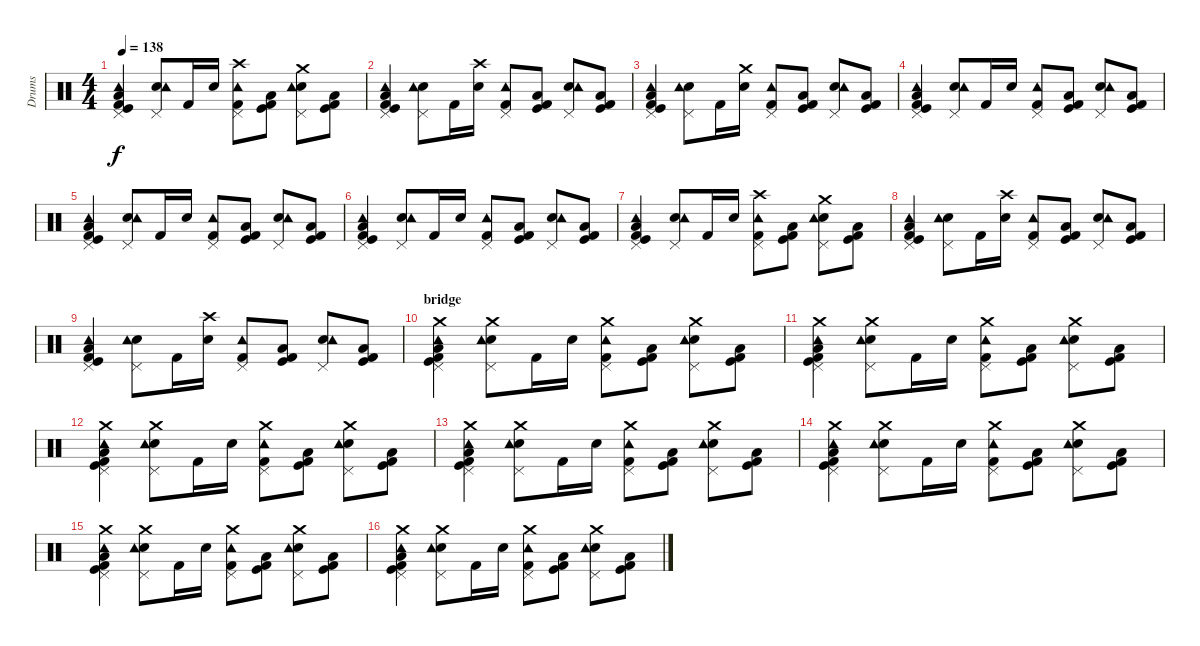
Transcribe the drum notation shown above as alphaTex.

\track ("Drums" "Drums") {instrument percussion}
\staff {score}
\articulation defaults
\ts (4 4)
\tempo 138
\clef neutral
\ks c
("Pedal Hi-Hat (hit)" "Kick (hit) 2" "Kick (hit)" "Low Floor Tom (hit)" "Tambourine (hit)").4{dy f} ("Pedal Hi-Hat (hit)" "Electric Snare (hit)" "Tambourine (hit)").8 "Kick (hit) 2".16 "Electric Snare (hit)".16 ("Crash high (hit)" "Pedal Hi-Hat (hit)" "Kick (hit) 2" "Tambourine (hit)").8 ("Kick (hit) 2" "Kick (hit)" "Low Floor Tom (hit)").8 ("Crash medium (hit)" "Pedal Hi-Hat (hit)" "Electric Snare (hit)" "Tambourine (hit)").8 ("Kick (hit) 2" "Low Floor Tom (hit)" "Kick (hit)").8 |
("Pedal Hi-Hat (hit)" "Kick (hit) 2" "Kick (hit)" "Low Floor Tom (hit)" "Tambourine (hit)").4 ("Pedal Hi-Hat (hit)" "Electric Snare (hit)" "Tambourine (hit)").8 "Kick (hit) 2".16 ("Crash high (hit)" "Electric Snare (hit)").16 ("Pedal Hi-Hat (hit)" "Kick (hit) 2" "Tambourine (hit)").8 ("Kick (hit) 2" "Kick (hit)" "Low Floor Tom (hit)").8 ("Pedal Hi-Hat (hit)" "Electric Snare (hit)" "Tambourine (hit)").8 ("Kick (hit) 2" "Low Floor Tom (hit)" "Kick (hit)").8 |
("Pedal Hi-Hat (hit)" "Kick (hit) 2" "Kick (hit)" "Low Floor Tom (hit)" "Tambourine (hit)").4 ("Pedal Hi-Hat (hit)" "Electric Snare (hit)" "Tambourine (hit)").8 "Kick (hit) 2".16 ("Crash medium (hit)" "Electric Snare (hit)").16 ("Pedal Hi-Hat (hit)" "Kick (hit) 2" "Tambourine (hit)").8 ("Kick (hit) 2" "Kick (hit)" "Low Floor Tom (hit)").8 ("Pedal Hi-Hat (hit)" "Electric Snare (hit)" "Tambourine (hit)").8 ("Kick (hit) 2" "Low Floor Tom (hit)" "Kick (hit)").8 |
("Pedal Hi-Hat (hit)" "Kick (hit) 2" "Kick (hit)" "Low Floor Tom (hit)" "Tambourine (hit)").4 ("Pedal Hi-Hat (hit)" "Electric Snare (hit)" "Tambourine (hit)").8 "Kick (hit) 2".16 "Electric Snare (hit)".16 ("Pedal Hi-Hat (hit)" "Kick (hit) 2" "Tambourine (hit)").8 ("Kick (hit) 2" "Kick (hit)" "Low Floor Tom (hit)").8 ("Pedal Hi-Hat (hit)" "Electric Snare (hit)" "Tambourine (hit)").8 ("Kick (hit) 2" "Low Floor Tom (hit)" "Kick (hit)").8 |
("Pedal Hi-Hat (hit)" "Kick (hit) 2" "Kick (hit)" "Low Floor Tom (hit)" "Tambourine (hit)").4 ("Pedal Hi-Hat (hit)" "Electric Snare (hit)" "Tambourine (hit)").8 "Kick (hit) 2".16 "Electric Snare (hit)".16 ("Pedal Hi-Hat (hit)" "Kick (hit) 2" "Tambourine (hit)").8 ("Kick (hit) 2" "Kick (hit)" "Low Floor Tom (hit)").8 ("Pedal Hi-Hat (hit)" "Electric Snare (hit)" "Tambourine (hit)").8 ("Kick (hit) 2" "Low Floor Tom (hit)" "Kick (hit)").8 |
("Pedal Hi-Hat (hit)" "Kick (hit) 2" "Kick (hit)" "Low Floor Tom (hit)" "Tambourine (hit)").4 ("Pedal Hi-Hat (hit)" "Electric Snare (hit)" "Tambourine (hit)").8 "Kick (hit) 2".16 "Electric Snare (hit)".16 ("Pedal Hi-Hat (hit)" "Kick (hit) 2" "Tambourine (hit)").8 ("Kick (hit) 2" "Kick (hit)" "Low Floor Tom (hit)").8 ("Pedal Hi-Hat (hit)" "Electric Snare (hit)" "Tambourine (hit)").8 ("Kick (hit) 2" "Low Floor Tom (hit)" "Kick (hit)").8 |
("Pedal Hi-Hat (hit)" "Kick (hit) 2" "Kick (hit)" "Low Floor Tom (hit)" "Tambourine (hit)").4 ("Pedal Hi-Hat (hit)" "Electric Snare (hit)" "Tambourine (hit)").8 "Kick (hit) 2".16 "Electric Snare (hit)".16 ("Crash high (hit)" "Pedal Hi-Hat (hit)" "Kick (hit) 2" "Tambourine (hit)").8 ("Kick (hit) 2" "Kick (hit)" "Low Floor Tom (hit)").8 ("Crash medium (hit)" "Pedal Hi-Hat (hit)" "Electric Snare (hit)" "Tambourine (hit)").8 ("Kick (hit) 2" "Low Floor Tom (hit)" "Kick (hit)").8 |
("Pedal Hi-Hat (hit)" "Kick (hit) 2" "Kick (hit)" "Low Floor Tom (hit)" "Tambourine (hit)").4 ("Pedal Hi-Hat (hit)" "Electric Snare (hit)" "Tambourine (hit)").8 "Kick (hit) 2".16 ("Crash high (hit)" "Electric Snare (hit)").16 ("Pedal Hi-Hat (hit)" "Kick (hit) 2" "Tambourine (hit)").8 ("Kick (hit) 2" "Kick (hit)" "Low Floor Tom (hit)").8 ("Pedal Hi-Hat (hit)" "Electric Snare (hit)" "Tambourine (hit)").8 ("Kick (hit) 2" "Low Floor Tom (hit)" "Kick (hit)").8 |
("Pedal Hi-Hat (hit)" "Kick (hit) 2" "Kick (hit)" "Low Floor Tom (hit)" "Tambourine (hit)").4 ("Pedal Hi-Hat (hit)" "Electric Snare (hit)" "Tambourine (hit)").8 "Kick (hit) 2".16 ("Crash high (hit)" "Electric Snare (hit)").16 ("Pedal Hi-Hat (hit)" "Kick (hit) 2" "Tambourine (hit)").8 ("Kick (hit) 2" "Kick (hit)" "Low Floor Tom (hit)").8 ("Pedal Hi-Hat (hit)" "Electric Snare (hit)" "Tambourine (hit)").8 ("Kick (hit) 2" "Low Floor Tom (hit)" "Kick (hit)").8 |
\section ("" "bridge")
("Crash medium (hit)" "Pedal Hi-Hat (hit)" "Kick (hit) 2" "Kick (hit)" "Low Floor Tom (hit)" "Tambourine (hit)").4 ("Crash medium (hit)" "Pedal Hi-Hat (hit)" "Electric Snare (hit)" "Tambourine (hit)").8 "Kick (hit) 2".16 "Electric Snare (hit)".16 ("Crash medium (hit)" "Pedal Hi-Hat (hit)" "Kick (hit) 2" "Tambourine (hit)").8 ("Kick (hit) 2" "Kick (hit)" "Low Floor Tom (hit)").8 ("Crash medium (hit)" "Pedal Hi-Hat (hit)" "Electric Snare (hit)" "Tambourine (hit)").8 ("Kick (hit) 2" "Low Floor Tom (hit)" "Kick (hit)").8 |
("Crash medium (hit)" "Pedal Hi-Hat (hit)" "Kick (hit) 2" "Kick (hit)" "Low Floor Tom (hit)" "Tambourine (hit)").4 ("Crash medium (hit)" "Pedal Hi-Hat (hit)" "Electric Snare (hit)" "Tambourine (hit)").8 "Kick (hit) 2".16 "Electric Snare (hit)".16 ("Crash medium (hit)" "Pedal Hi-Hat (hit)" "Kick (hit) 2" "Tambourine (hit)").8 ("Kick (hit) 2" "Kick (hit)" "Low Floor Tom (hit)").8 ("Crash medium (hit)" "Pedal Hi-Hat (hit)" "Electric Snare (hit)" "Tambourine (hit)").8 ("Kick (hit) 2" "Low Floor Tom (hit)" "Kick (hit)").8 |
("Crash medium (hit)" "Pedal Hi-Hat (hit)" "Kick (hit) 2" "Kick (hit)" "Low Floor Tom (hit)" "Tambourine (hit)").4 ("Crash medium (hit)" "Pedal Hi-Hat (hit)" "Electric Snare (hit)" "Tambourine (hit)").8 "Kick (hit) 2".16 "Electric Snare (hit)".16 ("Crash medium (hit)" "Pedal Hi-Hat (hit)" "Kick (hit) 2" "Tambourine (hit)").8 ("Kick (hit) 2" "Kick (hit)" "Low Floor Tom (hit)").8 ("Crash medium (hit)" "Pedal Hi-Hat (hit)" "Electric Snare (hit)" "Tambourine (hit)").8 ("Kick (hit) 2" "Low Floor Tom (hit)" "Kick (hit)").8 |
("Crash medium (hit)" "Pedal Hi-Hat (hit)" "Kick (hit) 2" "Kick (hit)" "Low Floor Tom (hit)" "Tambourine (hit)").4 ("Crash medium (hit)" "Pedal Hi-Hat (hit)" "Electric Snare (hit)" "Tambourine (hit)").8 "Kick (hit) 2".16 "Electric Snare (hit)".16 ("Crash medium (hit)" "Pedal Hi-Hat (hit)" "Kick (hit) 2" "Tambourine (hit)").8 ("Kick (hit) 2" "Kick (hit)" "Low Floor Tom (hit)").8 ("Crash medium (hit)" "Pedal Hi-Hat (hit)" "Electric Snare (hit)" "Tambourine (hit)").8 ("Kick (hit) 2" "Low Floor Tom (hit)" "Kick (hit)").8 |
("Crash medium (hit)" "Pedal Hi-Hat (hit)" "Kick (hit) 2" "Kick (hit)" "Low Floor Tom (hit)" "Tambourine (hit)").4 ("Crash medium (hit)" "Pedal Hi-Hat (hit)" "Electric Snare (hit)" "Tambourine (hit)").8 "Kick (hit) 2".16 "Electric Snare (hit)".16 ("Crash medium (hit)" "Pedal Hi-Hat (hit)" "Kick (hit) 2" "Tambourine (hit)").8 ("Kick (hit) 2" "Kick (hit)" "Low Floor Tom (hit)").8 ("Crash medium (hit)" "Pedal Hi-Hat (hit)" "Electric Snare (hit)" "Tambourine (hit)").8 ("Kick (hit) 2" "Low Floor Tom (hit)" "Kick (hit)").8 |
("Crash medium (hit)" "Pedal Hi-Hat (hit)" "Kick (hit) 2" "Kick (hit)" "Low Floor Tom (hit)" "Tambourine (hit)").4 ("Crash medium (hit)" "Pedal Hi-Hat (hit)" "Electric Snare (hit)" "Tambourine (hit)").8 "Kick (hit) 2".16 "Electric Snare (hit)".16 ("Crash medium (hit)" "Pedal Hi-Hat (hit)" "Kick (hit) 2" "Tambourine (hit)").8 ("Kick (hit) 2" "Kick (hit)" "Low Floor Tom (hit)").8 ("Crash medium (hit)" "Pedal Hi-Hat (hit)" "Electric Snare (hit)" "Tambourine (hit)").8 ("Kick (hit) 2" "Low Floor Tom (hit)" "Kick (hit)").8 |
("Crash medium (hit)" "Pedal Hi-Hat (hit)" "Kick (hit) 2" "Kick (hit)" "Low Floor Tom (hit)" "Tambourine (hit)").4 ("Crash medium (hit)" "Pedal Hi-Hat (hit)" "Electric Snare (hit)" "Tambourine (hit)").8 "Kick (hit) 2".16 "Electric Snare (hit)".16 ("Crash medium (hit)" "Pedal Hi-Hat (hit)" "Kick (hit) 2" "Tambourine (hit)").8 ("Kick (hit) 2" "Kick (hit)" "Low Floor Tom (hit)").8 ("Crash medium (hit)" "Pedal Hi-Hat (hit)" "Electric Snare (hit)" "Tambourine (hit)").8 ("Kick (hit) 2" "Low Floor Tom (hit)" "Kick (hit)").8
